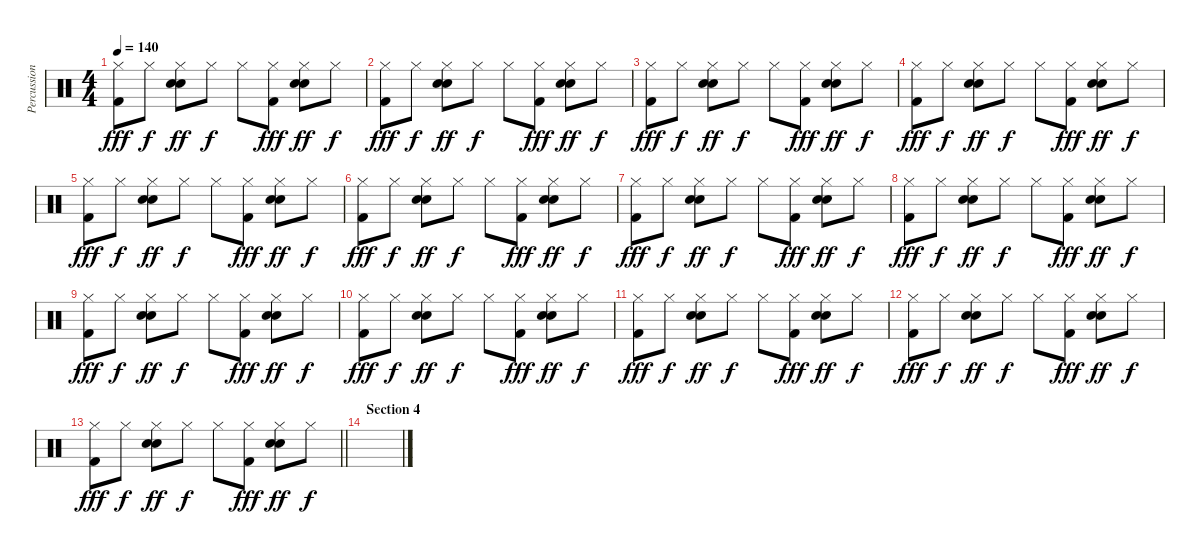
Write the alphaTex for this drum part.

\track ("Percussion" "Percussion") {instrument percussion}
\staff {score}
\articulation defaults
\ts (4 4)
\tempo 140
\clef neutral
\ks c
("Hi-Hat (closed)" "Kick (hit) 2").8{dy fff} "Hi-Hat (closed)".8{dy f} ("Hi-Hat (closed)" "Electric Snare (hit)" "Snare (hit) 2").8{dy ff} "Hi-Hat (closed)".8{dy f} "Hi-Hat (closed)".8 ("Hi-Hat (closed)" "Kick (hit) 2").8{dy fff} ("Hi-Hat (closed)" "Electric Snare (hit)" "Snare (hit) 2").8{dy ff} "Hi-Hat (closed)".8{dy f} |
("Hi-Hat (closed)" "Kick (hit) 2").8{dy fff} "Hi-Hat (closed)".8{dy f} ("Hi-Hat (closed)" "Electric Snare (hit)" "Snare (hit) 2").8{dy ff} "Hi-Hat (closed)".8{dy f} "Hi-Hat (closed)".8 ("Hi-Hat (closed)" "Kick (hit) 2").8{dy fff} ("Hi-Hat (closed)" "Electric Snare (hit)" "Snare (hit) 2").8{dy ff} "Hi-Hat (closed)".8{dy f} |
("Hi-Hat (closed)" "Kick (hit) 2").8{dy fff} "Hi-Hat (closed)".8{dy f} ("Hi-Hat (closed)" "Electric Snare (hit)" "Snare (hit) 2").8{dy ff} "Hi-Hat (closed)".8{dy f} "Hi-Hat (closed)".8 ("Hi-Hat (closed)" "Kick (hit) 2").8{dy fff} ("Hi-Hat (closed)" "Electric Snare (hit)" "Snare (hit) 2").8{dy ff} "Hi-Hat (closed)".8{dy f} |
("Hi-Hat (closed)" "Kick (hit) 2").8{dy fff} "Hi-Hat (closed)".8{dy f} ("Hi-Hat (closed)" "Electric Snare (hit)" "Snare (hit) 2").8{dy ff} "Hi-Hat (closed)".8{dy f} "Hi-Hat (closed)".8 ("Hi-Hat (closed)" "Kick (hit) 2").8{dy fff} ("Hi-Hat (closed)" "Electric Snare (hit)" "Snare (hit) 2").8{dy ff} "Hi-Hat (closed)".8{dy f} |
("Hi-Hat (closed)" "Kick (hit) 2").8{dy fff} "Hi-Hat (closed)".8{dy f} ("Hi-Hat (closed)" "Electric Snare (hit)" "Snare (hit) 2").8{dy ff} "Hi-Hat (closed)".8{dy f} "Hi-Hat (closed)".8 ("Hi-Hat (closed)" "Kick (hit) 2").8{dy fff} ("Hi-Hat (closed)" "Electric Snare (hit)" "Snare (hit) 2").8{dy ff} "Hi-Hat (closed)".8{dy f} |
("Hi-Hat (closed)" "Kick (hit) 2").8{dy fff} "Hi-Hat (closed)".8{dy f} ("Hi-Hat (closed)" "Electric Snare (hit)" "Snare (hit) 2").8{dy ff} "Hi-Hat (closed)".8{dy f} "Hi-Hat (closed)".8 ("Hi-Hat (closed)" "Kick (hit) 2").8{dy fff} ("Hi-Hat (closed)" "Electric Snare (hit)" "Snare (hit) 2").8{dy ff} "Hi-Hat (closed)".8{dy f} |
("Hi-Hat (closed)" "Kick (hit) 2").8{dy fff} "Hi-Hat (closed)".8{dy f} ("Hi-Hat (closed)" "Electric Snare (hit)" "Snare (hit) 2").8{dy ff} "Hi-Hat (closed)".8{dy f} "Hi-Hat (closed)".8 ("Hi-Hat (closed)" "Kick (hit) 2").8{dy fff} ("Hi-Hat (closed)" "Electric Snare (hit)" "Snare (hit) 2").8{dy ff} "Hi-Hat (closed)".8{dy f} |
("Hi-Hat (closed)" "Kick (hit) 2").8{dy fff} "Hi-Hat (closed)".8{dy f} ("Hi-Hat (closed)" "Electric Snare (hit)" "Snare (hit) 2").8{dy ff} "Hi-Hat (closed)".8{dy f} "Hi-Hat (closed)".8 ("Hi-Hat (closed)" "Kick (hit) 2").8{dy fff} ("Hi-Hat (closed)" "Electric Snare (hit)" "Snare (hit) 2").8{dy ff} "Hi-Hat (closed)".8{dy f} |
("Hi-Hat (closed)" "Kick (hit) 2").8{dy fff} "Hi-Hat (closed)".8{dy f} ("Hi-Hat (closed)" "Electric Snare (hit)" "Snare (hit) 2").8{dy ff} "Hi-Hat (closed)".8{dy f} "Hi-Hat (closed)".8 ("Hi-Hat (closed)" "Kick (hit) 2").8{dy fff} ("Hi-Hat (closed)" "Electric Snare (hit)" "Snare (hit) 2").8{dy ff} "Hi-Hat (closed)".8{dy f} |
("Hi-Hat (closed)" "Kick (hit) 2").8{dy fff} "Hi-Hat (closed)".8{dy f} ("Hi-Hat (closed)" "Electric Snare (hit)" "Snare (hit) 2").8{dy ff} "Hi-Hat (closed)".8{dy f} "Hi-Hat (closed)".8 ("Hi-Hat (closed)" "Kick (hit) 2").8{dy fff} ("Hi-Hat (closed)" "Electric Snare (hit)" "Snare (hit) 2").8{dy ff} "Hi-Hat (closed)".8{dy f} |
("Hi-Hat (closed)" "Kick (hit) 2").8{dy fff} "Hi-Hat (closed)".8{dy f} ("Hi-Hat (closed)" "Electric Snare (hit)" "Snare (hit) 2").8{dy ff} "Hi-Hat (closed)".8{dy f} "Hi-Hat (closed)".8 ("Hi-Hat (closed)" "Kick (hit) 2").8{dy fff} ("Hi-Hat (closed)" "Electric Snare (hit)" "Snare (hit) 2").8{dy ff} "Hi-Hat (closed)".8{dy f} |
("Hi-Hat (closed)" "Kick (hit) 2").8{dy fff} "Hi-Hat (closed)".8{dy f} ("Hi-Hat (closed)" "Electric Snare (hit)" "Snare (hit) 2").8{dy ff} "Hi-Hat (closed)".8{dy f} "Hi-Hat (closed)".8 ("Hi-Hat (closed)" "Kick (hit) 2").8{dy fff} ("Hi-Hat (closed)" "Electric Snare (hit)" "Snare (hit) 2").8{dy ff} "Hi-Hat (closed)".8{dy f} |
\barLineRight lightlight
("Hi-Hat (closed)" "Kick (hit) 2").8{dy fff} "Hi-Hat (closed)".8{dy f} ("Hi-Hat (closed)" "Electric Snare (hit)" "Snare (hit) 2").8{dy ff} "Hi-Hat (closed)".8{dy f} "Hi-Hat (closed)".8 ("Hi-Hat (closed)" "Kick (hit) 2").8{dy fff} ("Hi-Hat (closed)" "Electric Snare (hit)" "Snare (hit) 2").8{dy ff} "Hi-Hat (closed)".8{dy f} |
\section ("" "Section 4")
